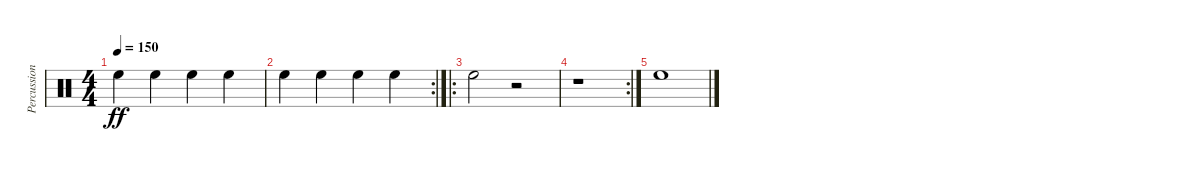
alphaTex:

\track ("Percussioni" "Percussion") {instrument percussion}
\staff {score}
\articulation defaults
\ts (4 4)
\tempo 150
\clef neutral
\ks c "High Floor Tom (hit)".4{dy ff} "High Floor Tom (hit)".4 "High Floor Tom (hit)".4 "High Floor Tom (hit)".4
|
\rc 2 "High Floor Tom (hit)".4 "High Floor Tom (hit)".4 "High Floor Tom (hit)".4 "High Floor Tom (hit)".4
|
\ro "High Floor Tom (hit)".2
r.2 |
\rc 2
r.1 |
"High Floor Tom (hit)".1
